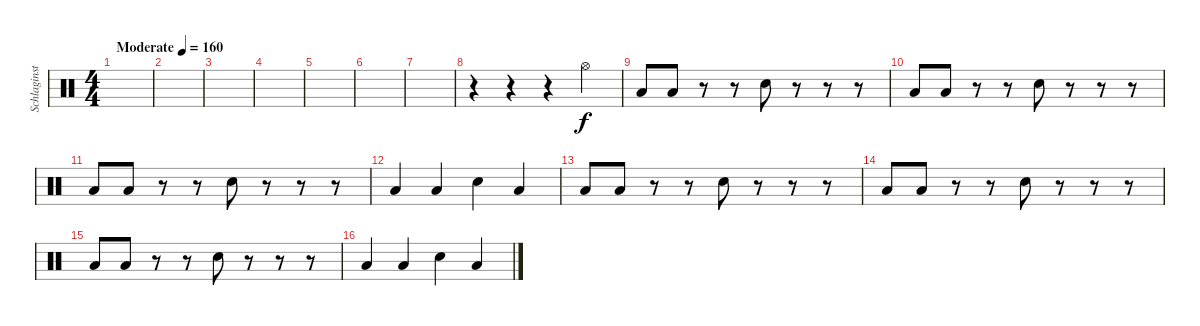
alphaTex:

\track ("Schlaginstrumente - Auswahl" "Schlaginst") {instrument percussion}
\staff {score}
\articulation defaults
\ts (4 4)
\tempo (160 "Moderate")
\clef neutral
\ks c
|
|
|
|
|
|
|
r.4 r.4 r.4 "Hi-Hat (open)".4 |
"Low Floor Tom (hit)".8 "Low Floor Tom (hit)".8 r.8 r.8 "Snare (hit) 2".8 r.8 r.8 r.8 |
"Low Floor Tom (hit)".8 "Low Floor Tom (hit)".8 r.8 r.8 "Snare (hit) 2".8 r.8 r.8 r.8 |
"Low Floor Tom (hit)".8 "Low Floor Tom (hit)".8 r.8 r.8 "Snare (hit) 2".8 r.8 r.8 r.8 |
"Low Floor Tom (hit)".4 "Low Floor Tom (hit)".4 "Snare (hit) 2".4 "Low Floor Tom (hit)".4 |
"Low Floor Tom (hit)".8 "Low Floor Tom (hit)".8 r.8 r.8 "Snare (hit) 2".8 r.8 r.8 r.8 |
"Low Floor Tom (hit)".8 "Low Floor Tom (hit)".8 r.8 r.8 "Snare (hit) 2".8 r.8 r.8 r.8 |
"Low Floor Tom (hit)".8 "Low Floor Tom (hit)".8 r.8 r.8 "Snare (hit) 2".8 r.8 r.8 r.8 |
"Low Floor Tom (hit)".4 "Low Floor Tom (hit)".4 "Snare (hit) 2".4 "Low Floor Tom (hit)".4
